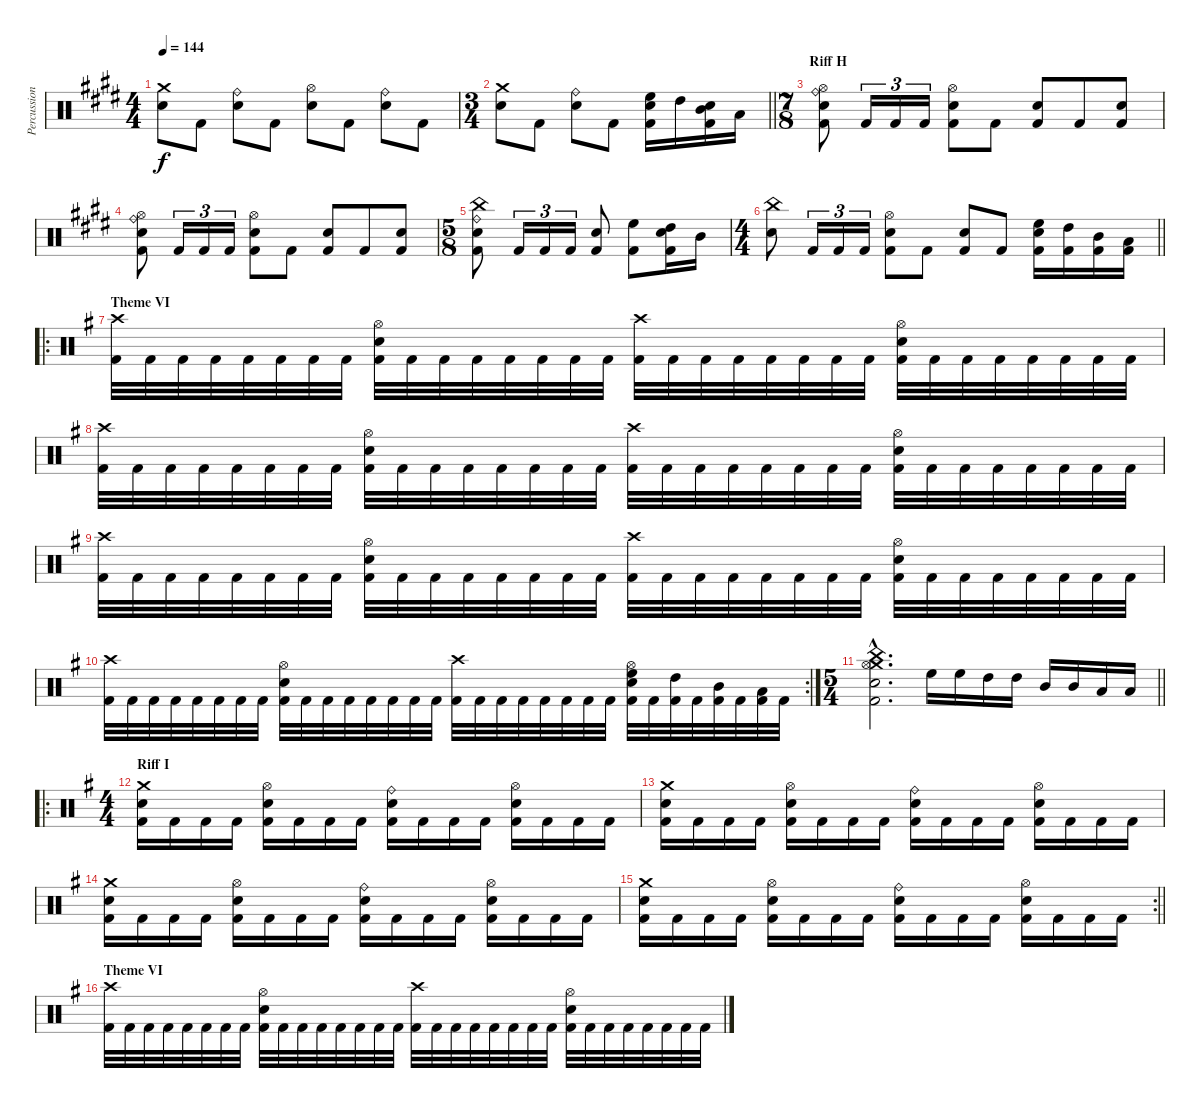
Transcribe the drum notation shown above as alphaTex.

\track ("Percussion" "Percussion") {instrument percussion}
\staff {score}
\articulation defaults
\ts (4 4)
\tempo 144
\clef neutral
\ks c#minor
("Crash medium (hit)" "Snare (hit) 2").8{dy f} "Kick (hit) 2".8 ("Ride (bell)" "Snare (hit) 2").8 "Kick (hit) 2".8 ("Hi-Hat (open)" "Snare (hit) 2").8 "Kick (hit) 2".8 ("Ride (bell)" "Snare (hit) 2").8 "Kick (hit) 2".8 |
\ts (3 4)
\barLineRight lightlight
("Crash medium (hit)" "Snare (hit) 2").8 "Kick (hit) 2".8 ("Ride (bell)" "Snare (hit) 2").8 "Kick (hit) 2".8 ("High Floor Tom (hit)" "Snare (hit) 2" "Kick (hit) 2").16 "High Tom (hit)".16 ("Mid Tom (hit)" "Snare (hit) 2" "Kick (hit) 2").16 "Low Tom (hit)".16 |
\ts (7 8)
\section ("" "Riff H")
("Ride (bell)" "Hi-Hat (open)" "Snare (hit) 2" "Kick (hit) 2").8 "Kick (hit) 2".16{tu (3 2)} "Kick (hit) 2".16{tu (3 2)} "Kick (hit) 2".16{tu (3 2)} ("Hi-Hat (open)" "Snare (hit) 2" "Kick (hit) 2").8 "Kick (hit) 2".8 ("Snare (hit) 2" "Kick (hit) 2").8 "Kick (hit) 2".8 ("Snare (hit) 2" "Kick (hit) 2").8 |
("Ride (bell)" "Hi-Hat (open)" "Snare (hit) 2" "Kick (hit) 2").8 "Kick (hit) 2".16{tu (3 2)} "Kick (hit) 2".16{tu (3 2)} "Kick (hit) 2".16{tu (3 2)} ("Hi-Hat (open)" "Snare (hit) 2" "Kick (hit) 2").8 "Kick (hit) 2".8 ("Snare (hit) 2" "Kick (hit) 2").8 "Kick (hit) 2".8 ("Snare (hit) 2" "Kick (hit) 2").8 |
\ts (5 8)
("Ride (bell)" "China (hit)" "Snare (hit) 2" "Kick (hit) 2").8 "Kick (hit) 2".16{tu (3 2)} "Kick (hit) 2".16{tu (3 2)} "Kick (hit) 2".16{tu (3 2)} ("Snare (hit) 2" "Kick (hit) 2").8 ("High Floor Tom (hit)" "Kick (hit) 2").8 ("High Tom (hit)" "Snare (hit) 2" "Kick (hit) 2").16 "Mid Tom (hit)".16 |
\ts (4 4)
\barLineRight lightlight
("China (hit)" "Snare (hit) 2").8 "Kick (hit) 2".16{tu (3 2)} "Kick (hit) 2".16{tu (3 2)} "Kick (hit) 2".16{tu (3 2)} ("Hi-Hat (open)" "Snare (hit) 2" "Kick (hit) 2").8 "Kick (hit) 2".8 ("Snare (hit) 2" "Kick (hit) 2").8 "Kick (hit) 2".8 ("High Floor Tom (hit)" "Snare (hit) 2" "Kick (hit) 2").16 ("High Tom (hit)" "Kick (hit) 2").16 ("Mid Tom (hit)" "Kick (hit) 2").16 ("Low Tom (hit)" "Kick (hit) 2").16 |
\ro
\section ("" "Theme VI")
\ks eminor
("Crash high (hit)" "Kick (hit) 2").32 "Kick (hit) 2".32 "Kick (hit) 2".32 "Kick (hit) 2".32 "Kick (hit) 2".32 "Kick (hit) 2".32 "Kick (hit) 2".32 "Kick (hit) 2".32 ("Hi-Hat (open)" "Snare (hit) 2" "Kick (hit) 2").32 "Kick (hit) 2".32 "Kick (hit) 2".32 "Kick (hit) 2".32 "Kick (hit) 2".32 "Kick (hit) 2".32 "Kick (hit) 2".32 "Kick (hit) 2".32 ("Crash high (hit)" "Kick (hit) 2").32 "Kick (hit) 2".32 "Kick (hit) 2".32 "Kick (hit) 2".32 "Kick (hit) 2".32 "Kick (hit) 2".32 "Kick (hit) 2".32 "Kick (hit) 2".32 ("Hi-Hat (open)" "Snare (hit) 2" "Kick (hit) 2").32 "Kick (hit) 2".32 "Kick (hit) 2".32 "Kick (hit) 2".32 "Kick (hit) 2".32 "Kick (hit) 2".32 "Kick (hit) 2".32 "Kick (hit) 2".32 |
("Crash high (hit)" "Kick (hit) 2").32 "Kick (hit) 2".32 "Kick (hit) 2".32 "Kick (hit) 2".32 "Kick (hit) 2".32 "Kick (hit) 2".32 "Kick (hit) 2".32 "Kick (hit) 2".32 ("Hi-Hat (open)" "Snare (hit) 2" "Kick (hit) 2").32 "Kick (hit) 2".32 "Kick (hit) 2".32 "Kick (hit) 2".32 "Kick (hit) 2".32 "Kick (hit) 2".32 "Kick (hit) 2".32 "Kick (hit) 2".32 ("Crash high (hit)" "Kick (hit) 2").32 "Kick (hit) 2".32 "Kick (hit) 2".32 "Kick (hit) 2".32 "Kick (hit) 2".32 "Kick (hit) 2".32 "Kick (hit) 2".32 "Kick (hit) 2".32 ("Hi-Hat (open)" "Snare (hit) 2" "Kick (hit) 2").32 "Kick (hit) 2".32 "Kick (hit) 2".32 "Kick (hit) 2".32 "Kick (hit) 2".32 "Kick (hit) 2".32 "Kick (hit) 2".32 "Kick (hit) 2".32 |
("Crash high (hit)" "Kick (hit) 2").32 "Kick (hit) 2".32 "Kick (hit) 2".32 "Kick (hit) 2".32 "Kick (hit) 2".32 "Kick (hit) 2".32 "Kick (hit) 2".32 "Kick (hit) 2".32 ("Hi-Hat (open)" "Snare (hit) 2" "Kick (hit) 2").32 "Kick (hit) 2".32 "Kick (hit) 2".32 "Kick (hit) 2".32 "Kick (hit) 2".32 "Kick (hit) 2".32 "Kick (hit) 2".32 "Kick (hit) 2".32 ("Crash high (hit)" "Kick (hit) 2").32 "Kick (hit) 2".32 "Kick (hit) 2".32 "Kick (hit) 2".32 "Kick (hit) 2".32 "Kick (hit) 2".32 "Kick (hit) 2".32 "Kick (hit) 2".32 ("Hi-Hat (open)" "Snare (hit) 2" "Kick (hit) 2").32 "Kick (hit) 2".32 "Kick (hit) 2".32 "Kick (hit) 2".32 "Kick (hit) 2".32 "Kick (hit) 2".32 "Kick (hit) 2".32 "Kick (hit) 2".32 |
\rc 2
("Crash high (hit)" "Kick (hit) 2").32 "Kick (hit) 2".32 "Kick (hit) 2".32 "Kick (hit) 2".32 "Kick (hit) 2".32 "Kick (hit) 2".32 "Kick (hit) 2".32 "Kick (hit) 2".32 ("Hi-Hat (open)" "Snare (hit) 2" "Kick (hit) 2").32 "Kick (hit) 2".32 "Kick (hit) 2".32 "Kick (hit) 2".32 "Kick (hit) 2".32 "Kick (hit) 2".32 "Kick (hit) 2".32 "Kick (hit) 2".32 ("Crash high (hit)" "Kick (hit) 2").32 "Kick (hit) 2".32 "Kick (hit) 2".32 "Kick (hit) 2".32 "Kick (hit) 2".32 "Kick (hit) 2".32 "Kick (hit) 2".32 "Kick (hit) 2".32 ("High Floor Tom (hit)" "Hi-Hat (open)" "Snare (hit) 2" "Kick (hit) 2").32 "Kick (hit) 2".32 ("High Tom (hit)" "Kick (hit) 2").32 "Kick (hit) 2".32 ("Mid Tom (hit)" "Kick (hit) 2").32 "Kick (hit) 2".32 ("Low Tom (hit)" "Kick (hit) 2").32 "Kick (hit) 2".32 |
\ts (5 4)
\barLineRight lightlight
("Crash medium (hit)"{hac} "China (hit)"{hac} "Hi-Hat (open)"{hac} "Snare (hit) 2"{hac} "Kick (hit) 2"{hac}).2{d} "High Floor Tom (hit)".16 "High Floor Tom (hit)".16 "High Tom (hit)".16 "High Tom (hit)".16 "Mid Tom (hit)".16 "Mid Tom (hit)".16 "Low Tom (hit)".16 "Low Tom (hit)".16 |
\ro
\ts (4 4)
\section ("" "Riff I")
("Crash medium (hit)" "Snare (hit) 2" "Kick (hit) 2").16 "Kick (hit) 2".16 "Kick (hit) 2".16 "Kick (hit) 2".16 ("Hi-Hat (open)" "Snare (hit) 2" "Kick (hit) 2").16 "Kick (hit) 2".16 "Kick (hit) 2".16 "Kick (hit) 2".16 ("Ride (bell)" "Snare (hit) 2" "Kick (hit) 2").16 "Kick (hit) 2".16 "Kick (hit) 2".16 "Kick (hit) 2".16 ("Hi-Hat (open)" "Snare (hit) 2" "Kick (hit) 2").16 "Kick (hit) 2".16 "Kick (hit) 2".16 "Kick (hit) 2".16 |
("Crash medium (hit)" "Snare (hit) 2" "Kick (hit) 2").16 "Kick (hit) 2".16 "Kick (hit) 2".16 "Kick (hit) 2".16 ("Hi-Hat (open)" "Snare (hit) 2" "Kick (hit) 2").16 "Kick (hit) 2".16 "Kick (hit) 2".16 "Kick (hit) 2".16 ("Ride (bell)" "Snare (hit) 2" "Kick (hit) 2").16 "Kick (hit) 2".16 "Kick (hit) 2".16 "Kick (hit) 2".16 ("Hi-Hat (open)" "Snare (hit) 2" "Kick (hit) 2").16 "Kick (hit) 2".16 "Kick (hit) 2".16 "Kick (hit) 2".16 |
("Crash medium (hit)" "Snare (hit) 2" "Kick (hit) 2").16 "Kick (hit) 2".16 "Kick (hit) 2".16 "Kick (hit) 2".16 ("Hi-Hat (open)" "Snare (hit) 2" "Kick (hit) 2").16 "Kick (hit) 2".16 "Kick (hit) 2".16 "Kick (hit) 2".16 ("Ride (bell)" "Snare (hit) 2" "Kick (hit) 2").16 "Kick (hit) 2".16 "Kick (hit) 2".16 "Kick (hit) 2".16 ("Hi-Hat (open)" "Snare (hit) 2" "Kick (hit) 2").16 "Kick (hit) 2".16 "Kick (hit) 2".16 "Kick (hit) 2".16 |
\rc 2
\barLineRight lightlight
("Crash medium (hit)" "Snare (hit) 2" "Kick (hit) 2").16 "Kick (hit) 2".16 "Kick (hit) 2".16 "Kick (hit) 2".16 ("Hi-Hat (open)" "Snare (hit) 2" "Kick (hit) 2").16 "Kick (hit) 2".16 "Kick (hit) 2".16 "Kick (hit) 2".16 ("Ride (bell)" "Snare (hit) 2" "Kick (hit) 2").16 "Kick (hit) 2".16 "Kick (hit) 2".16 "Kick (hit) 2".16 ("Hi-Hat (open)" "Snare (hit) 2" "Kick (hit) 2").16 "Kick (hit) 2".16 "Kick (hit) 2".16 "Kick (hit) 2".16 |
\section ("" "Theme VI")
("Crash high (hit)" "Kick (hit) 2").32 "Kick (hit) 2".32 "Kick (hit) 2".32 "Kick (hit) 2".32 "Kick (hit) 2".32 "Kick (hit) 2".32 "Kick (hit) 2".32 "Kick (hit) 2".32 ("Hi-Hat (open)" "Snare (hit) 2" "Kick (hit) 2").32 "Kick (hit) 2".32 "Kick (hit) 2".32 "Kick (hit) 2".32 "Kick (hit) 2".32 "Kick (hit) 2".32 "Kick (hit) 2".32 "Kick (hit) 2".32 ("Crash high (hit)" "Kick (hit) 2").32 "Kick (hit) 2".32 "Kick (hit) 2".32 "Kick (hit) 2".32 "Kick (hit) 2".32 "Kick (hit) 2".32 "Kick (hit) 2".32 "Kick (hit) 2".32 ("Hi-Hat (open)" "Snare (hit) 2" "Kick (hit) 2").32 "Kick (hit) 2".32 "Kick (hit) 2".32 "Kick (hit) 2".32 "Kick (hit) 2".32 "Kick (hit) 2".32 "Kick (hit) 2".32 "Kick (hit) 2".32
